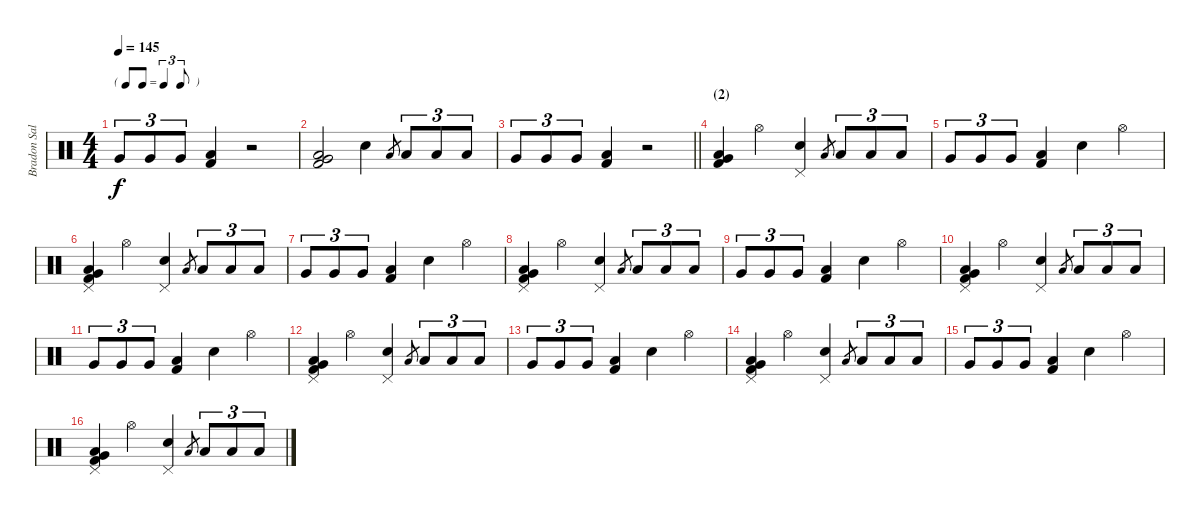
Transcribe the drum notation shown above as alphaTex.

\track ("Bradon Saller" "Bradon Sal") {instrument percussion}
\staff {score}
\articulation defaults
\ts (4 4)
\tf triplet8th
\tempo 145
\clef neutral
\ks c "Very Low Tom (hit)".8{tu (3 2) dy f} "Very Low Tom (hit)".8{tu (3 2)} "Very Low Tom (hit)".8{tu (3 2)}
("Low Floor Tom (hit)" "Kick (hit) 2").4 r.2 |
("Very Low Tom (hit)" "Low Floor Tom (hit)" "Kick (hit) 2").2 "Electric Snare (hit)".4 "Low Tom (hit)".8{gr} "Low Tom (hit)".8{tu (3 2)} "Low Tom (hit)".8{tu (3 2)} "Low Tom (hit)".8{tu (3 2)} |
\barLineRight lightlight "Very Low Tom (hit)".8{tu (3 2)} "Very Low Tom (hit)".8{tu (3 2)} "Very Low Tom (hit)".8{tu (3 2)}
("Low Floor Tom (hit)" "Kick (hit) 2").4 r.2 |
\section ("" "(2)")
("Very Low Tom (hit)" "Low Floor Tom (hit)" "Kick (hit) 2").4 "Hi-Hat (open)".4 ("Pedal Hi-Hat (hit)" "Electric Snare (hit)").4 "Low Tom (hit)".8{gr} "Low Tom (hit)".8{tu (3 2)} "Low Tom (hit)".8{tu (3 2)} "Low Tom (hit)".8{tu (3 2)} |
"Very Low Tom (hit)".8{tu (3 2)} "Very Low Tom (hit)".8{tu (3 2)} "Very Low Tom (hit)".8{tu (3 2)} ("Low Floor Tom (hit)" "Kick (hit) 2").4 "Electric Snare (hit)".4 "Hi-Hat (open)".4 |
("Pedal Hi-Hat (hit)" "Very Low Tom (hit)" "Low Floor Tom (hit)" "Kick (hit) 2").4 "Hi-Hat (open)".4 ("Pedal Hi-Hat (hit)" "Electric Snare (hit)").4 "Low Tom (hit)".8{gr} "Low Tom (hit)".8{tu (3 2)} "Low Tom (hit)".8{tu (3 2)} "Low Tom (hit)".8{tu (3 2)} |
"Very Low Tom (hit)".8{tu (3 2)} "Very Low Tom (hit)".8{tu (3 2)} "Very Low Tom (hit)".8{tu (3 2)} ("Low Floor Tom (hit)" "Kick (hit) 2").4 "Electric Snare (hit)".4 "Hi-Hat (open)".4 |
("Pedal Hi-Hat (hit)" "Very Low Tom (hit)" "Low Floor Tom (hit)" "Kick (hit) 2").4 "Hi-Hat (open)".4 ("Pedal Hi-Hat (hit)" "Electric Snare (hit)").4 "Low Tom (hit)".8{gr} "Low Tom (hit)".8{tu (3 2)} "Low Tom (hit)".8{tu (3 2)} "Low Tom (hit)".8{tu (3 2)} |
"Very Low Tom (hit)".8{tu (3 2)} "Very Low Tom (hit)".8{tu (3 2)} "Very Low Tom (hit)".8{tu (3 2)} ("Low Floor Tom (hit)" "Kick (hit) 2").4 "Electric Snare (hit)".4 "Hi-Hat (open)".4 |
("Pedal Hi-Hat (hit)" "Very Low Tom (hit)" "Low Floor Tom (hit)" "Kick (hit) 2").4 "Hi-Hat (open)".4 ("Pedal Hi-Hat (hit)" "Electric Snare (hit)").4 "Low Tom (hit)".8{gr} "Low Tom (hit)".8{tu (3 2)} "Low Tom (hit)".8{tu (3 2)} "Low Tom (hit)".8{tu (3 2)} |
"Very Low Tom (hit)".8{tu (3 2)} "Very Low Tom (hit)".8{tu (3 2)} "Very Low Tom (hit)".8{tu (3 2)} ("Low Floor Tom (hit)" "Kick (hit) 2").4 "Electric Snare (hit)".4 "Hi-Hat (open)".4 |
("Pedal Hi-Hat (hit)" "Very Low Tom (hit)" "Low Floor Tom (hit)" "Kick (hit) 2").4 "Hi-Hat (open)".4 ("Pedal Hi-Hat (hit)" "Electric Snare (hit)").4 "Low Tom (hit)".8{gr} "Low Tom (hit)".8{tu (3 2)} "Low Tom (hit)".8{tu (3 2)} "Low Tom (hit)".8{tu (3 2)} |
"Very Low Tom (hit)".8{tu (3 2)} "Very Low Tom (hit)".8{tu (3 2)} "Very Low Tom (hit)".8{tu (3 2)} ("Low Floor Tom (hit)" "Kick (hit) 2").4 "Electric Snare (hit)".4 "Hi-Hat (open)".4 |
("Pedal Hi-Hat (hit)" "Very Low Tom (hit)" "Low Floor Tom (hit)" "Kick (hit) 2").4 "Hi-Hat (open)".4 ("Pedal Hi-Hat (hit)" "Electric Snare (hit)").4 "Low Tom (hit)".8{gr} "Low Tom (hit)".8{tu (3 2)} "Low Tom (hit)".8{tu (3 2)} "Low Tom (hit)".8{tu (3 2)} |
"Very Low Tom (hit)".8{tu (3 2)} "Very Low Tom (hit)".8{tu (3 2)} "Very Low Tom (hit)".8{tu (3 2)} ("Low Floor Tom (hit)" "Kick (hit) 2").4 "Electric Snare (hit)".4 "Hi-Hat (open)".4 |
("Pedal Hi-Hat (hit)" "Very Low Tom (hit)" "Low Floor Tom (hit)" "Kick (hit) 2").4 "Hi-Hat (open)".4 ("Pedal Hi-Hat (hit)" "Electric Snare (hit)").4 "Low Tom (hit)".8{gr} "Low Tom (hit)".8{tu (3 2)} "Low Tom (hit)".8{tu (3 2)} "Low Tom (hit)".8{tu (3 2)}
